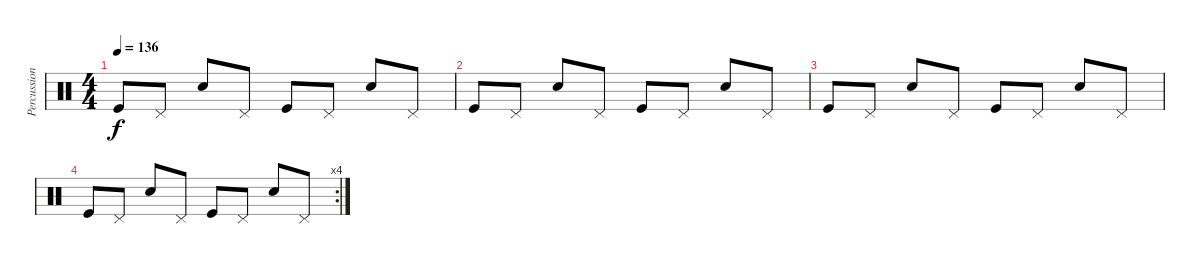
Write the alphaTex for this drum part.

\track ("Percussion" "Percussion") {instrument percussion}
\staff {score}
\articulation defaults
\ts (4 4)
\tempo 136
\clef neutral
\ks c "Kick (hit)".8{dy f} "Pedal Hi-Hat (hit)".8 "Snare (hit) 2".8 "Pedal Hi-Hat (hit)".8 "Kick (hit)".8 "Pedal Hi-Hat (hit)".8 "Snare (hit) 2".8 "Pedal Hi-Hat (hit)".8
|
"Kick (hit)".8 "Pedal Hi-Hat (hit)".8 "Snare (hit) 2".8 "Pedal Hi-Hat (hit)".8 "Kick (hit)".8 "Pedal Hi-Hat (hit)".8 "Snare (hit) 2".8 "Pedal Hi-Hat (hit)".8 |
"Kick (hit)".8 "Pedal Hi-Hat (hit)".8 "Snare (hit) 2".8 "Pedal Hi-Hat (hit)".8 "Kick (hit)".8 "Pedal Hi-Hat (hit)".8 "Snare (hit) 2".8 "Pedal Hi-Hat (hit)".8 |
\rc 4 "Kick (hit)".8 "Pedal Hi-Hat (hit)".8 "Snare (hit) 2".8 "Pedal Hi-Hat (hit)".8 "Kick (hit)".8 "Pedal Hi-Hat (hit)".8 "Snare (hit) 2".8 "Pedal Hi-Hat (hit)".8
